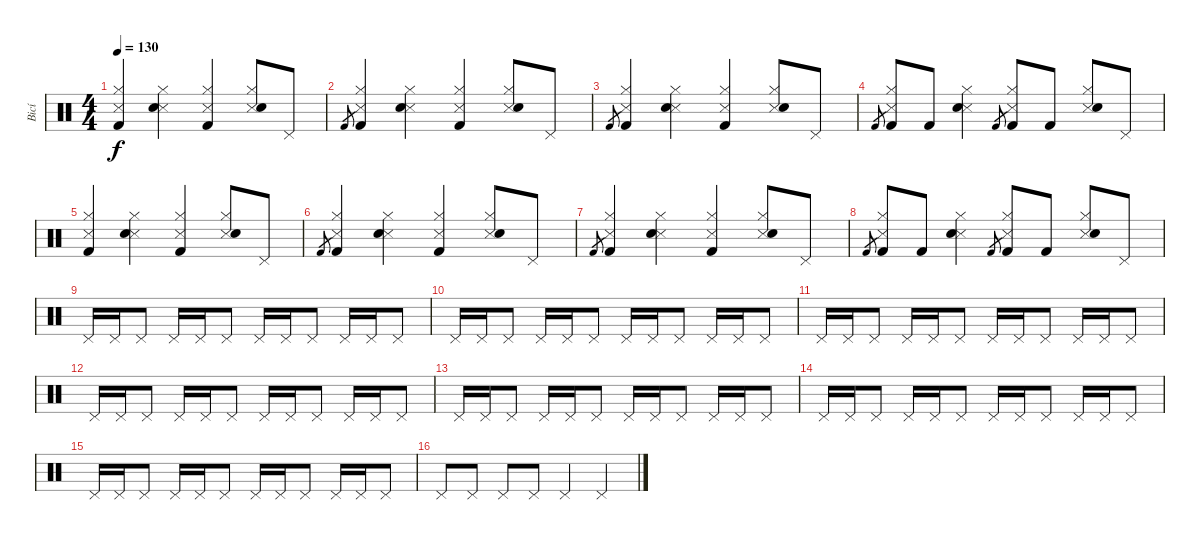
\track ("Bicí" "Bicí") {instrument percussion}
\staff {score}
\articulation defaults
\ts (4 4)
\tempo 130
\clef neutral
\ks c
("Snare (side stick) 3" "Hi-Hat (closed)" "Kick (hit) 2").4{dy f} ("Snare (side stick) 3" "Hi-Hat (closed)" "Snare (hit) 2").4 ("Snare (side stick) 3" "Hi-Hat (closed)" "Kick (hit) 2").4 ("Snare (side stick) 3" "Hi-Hat (closed)" "Snare (hit) 2").8 "Pedal Hi-Hat (hit)".8 |
"Kick (hit) 2".8{gr} ("Snare (side stick) 3" "Hi-Hat (closed)" "Kick (hit) 2").4 ("Snare (side stick) 3" "Hi-Hat (closed)" "Snare (hit) 2").4 ("Snare (side stick) 3" "Hi-Hat (closed)" "Kick (hit) 2").4 ("Snare (side stick) 3" "Hi-Hat (closed)" "Snare (hit) 2").8 "Pedal Hi-Hat (hit)".8 |
"Kick (hit) 2".8{gr} ("Snare (side stick) 3" "Hi-Hat (closed)" "Kick (hit) 2").4 ("Snare (side stick) 3" "Hi-Hat (closed)" "Snare (hit) 2").4 ("Snare (side stick) 3" "Hi-Hat (closed)" "Kick (hit) 2").4 ("Snare (side stick) 3" "Hi-Hat (closed)" "Snare (hit) 2").8 "Pedal Hi-Hat (hit)".8 |
"Kick (hit) 2".8{gr} ("Snare (side stick) 3" "Hi-Hat (closed)" "Kick (hit) 2").8 "Kick (hit) 2".8 ("Snare (side stick) 3" "Hi-Hat (closed)" "Snare (hit) 2").4 "Kick (hit) 2".8{gr} ("Snare (side stick) 3" "Hi-Hat (closed)" "Kick (hit) 2").8 "Kick (hit) 2".8 ("Snare (side stick) 3" "Hi-Hat (closed)" "Snare (hit) 2").8 "Pedal Hi-Hat (hit)".8 |
("Snare (side stick) 3" "Hi-Hat (closed)" "Kick (hit) 2").4 ("Snare (side stick) 3" "Hi-Hat (closed)" "Snare (hit) 2").4 ("Snare (side stick) 3" "Hi-Hat (closed)" "Kick (hit) 2").4 ("Snare (side stick) 3" "Hi-Hat (closed)" "Snare (hit) 2").8 "Pedal Hi-Hat (hit)".8 |
"Kick (hit) 2".8{gr} ("Snare (side stick) 3" "Hi-Hat (closed)" "Kick (hit) 2").4 ("Snare (side stick) 3" "Hi-Hat (closed)" "Snare (hit) 2").4 ("Snare (side stick) 3" "Hi-Hat (closed)" "Kick (hit) 2").4 ("Snare (side stick) 3" "Hi-Hat (closed)" "Snare (hit) 2").8 "Pedal Hi-Hat (hit)".8 |
"Kick (hit) 2".8{gr} ("Snare (side stick) 3" "Hi-Hat (closed)" "Kick (hit) 2").4 ("Snare (side stick) 3" "Hi-Hat (closed)" "Snare (hit) 2").4 ("Snare (side stick) 3" "Hi-Hat (closed)" "Kick (hit) 2").4 ("Snare (side stick) 3" "Hi-Hat (closed)" "Snare (hit) 2").8 "Pedal Hi-Hat (hit)".8 |
"Kick (hit) 2".8{gr} ("Snare (side stick) 3" "Hi-Hat (closed)" "Kick (hit) 2").8 "Kick (hit) 2".8 ("Snare (side stick) 3" "Hi-Hat (closed)" "Snare (hit) 2").4 "Kick (hit) 2".8{gr} ("Snare (side stick) 3" "Hi-Hat (closed)" "Kick (hit) 2").8 "Kick (hit) 2".8 ("Snare (side stick) 3" "Hi-Hat (closed)" "Snare (hit) 2").8 "Pedal Hi-Hat (hit)".8 |
"Pedal Hi-Hat (hit)".16{volume 1} "Pedal Hi-Hat (hit)".16 "Pedal Hi-Hat (hit)".8 "Pedal Hi-Hat (hit)".16 "Pedal Hi-Hat (hit)".16 "Pedal Hi-Hat (hit)".8 "Pedal Hi-Hat (hit)".16 "Pedal Hi-Hat (hit)".16 "Pedal Hi-Hat (hit)".8 "Pedal Hi-Hat (hit)".16 "Pedal Hi-Hat (hit)".16 "Pedal Hi-Hat (hit)".8 |
"Pedal Hi-Hat (hit)".16 "Pedal Hi-Hat (hit)".16 "Pedal Hi-Hat (hit)".8 "Pedal Hi-Hat (hit)".16 "Pedal Hi-Hat (hit)".16 "Pedal Hi-Hat (hit)".8 "Pedal Hi-Hat (hit)".16 "Pedal Hi-Hat (hit)".16 "Pedal Hi-Hat (hit)".8 "Pedal Hi-Hat (hit)".16 "Pedal Hi-Hat (hit)".16 "Pedal Hi-Hat (hit)".8 |
"Pedal Hi-Hat (hit)".16 "Pedal Hi-Hat (hit)".16 "Pedal Hi-Hat (hit)".8 "Pedal Hi-Hat (hit)".16 "Pedal Hi-Hat (hit)".16 "Pedal Hi-Hat (hit)".8 "Pedal Hi-Hat (hit)".16 "Pedal Hi-Hat (hit)".16 "Pedal Hi-Hat (hit)".8 "Pedal Hi-Hat (hit)".16 "Pedal Hi-Hat (hit)".16 "Pedal Hi-Hat (hit)".8 |
"Pedal Hi-Hat (hit)".16 "Pedal Hi-Hat (hit)".16 "Pedal Hi-Hat (hit)".8 "Pedal Hi-Hat (hit)".16 "Pedal Hi-Hat (hit)".16 "Pedal Hi-Hat (hit)".8 "Pedal Hi-Hat (hit)".16 "Pedal Hi-Hat (hit)".16 "Pedal Hi-Hat (hit)".8 "Pedal Hi-Hat (hit)".16 "Pedal Hi-Hat (hit)".16 "Pedal Hi-Hat (hit)".8 |
"Pedal Hi-Hat (hit)".16 "Pedal Hi-Hat (hit)".16 "Pedal Hi-Hat (hit)".8 "Pedal Hi-Hat (hit)".16 "Pedal Hi-Hat (hit)".16 "Pedal Hi-Hat (hit)".8 "Pedal Hi-Hat (hit)".16 "Pedal Hi-Hat (hit)".16 "Pedal Hi-Hat (hit)".8 "Pedal Hi-Hat (hit)".16 "Pedal Hi-Hat (hit)".16 "Pedal Hi-Hat (hit)".8 |
"Pedal Hi-Hat (hit)".16 "Pedal Hi-Hat (hit)".16 "Pedal Hi-Hat (hit)".8 "Pedal Hi-Hat (hit)".16 "Pedal Hi-Hat (hit)".16 "Pedal Hi-Hat (hit)".8 "Pedal Hi-Hat (hit)".16 "Pedal Hi-Hat (hit)".16 "Pedal Hi-Hat (hit)".8 "Pedal Hi-Hat (hit)".16 "Pedal Hi-Hat (hit)".16 "Pedal Hi-Hat (hit)".8 |
"Pedal Hi-Hat (hit)".16 "Pedal Hi-Hat (hit)".16 "Pedal Hi-Hat (hit)".8 "Pedal Hi-Hat (hit)".16 "Pedal Hi-Hat (hit)".16 "Pedal Hi-Hat (hit)".8 "Pedal Hi-Hat (hit)".16 "Pedal Hi-Hat (hit)".16 "Pedal Hi-Hat (hit)".8 "Pedal Hi-Hat (hit)".16 "Pedal Hi-Hat (hit)".16 "Pedal Hi-Hat (hit)".8 |
"Pedal Hi-Hat (hit)".8 "Pedal Hi-Hat (hit)".8 "Pedal Hi-Hat (hit)".8 "Pedal Hi-Hat (hit)".8 "Pedal Hi-Hat (hit)".4 "Pedal Hi-Hat (hit)".4
